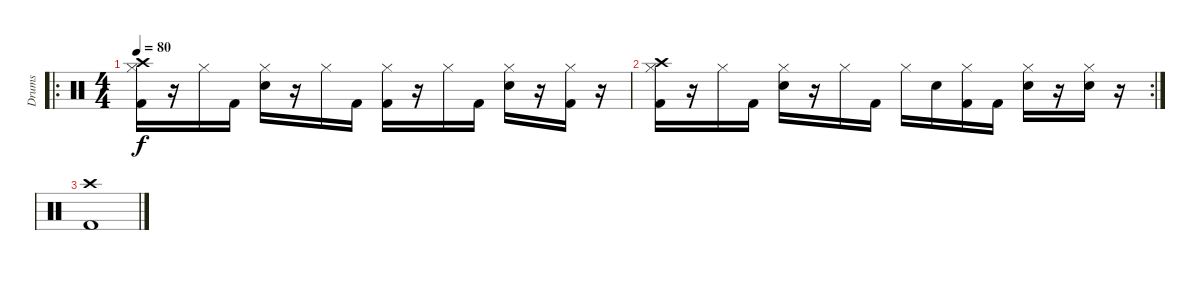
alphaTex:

\track ("Drums" "Drums") {instrument percussion}
\staff {score}
\articulation defaults
\ro
\ts (4 4)
\tempo 80
\clef neutral
\ks c
("Hi-Hat (closed)" "Crash high (hit)" "Kick (hit) 2").16{dy f} r.16 "Hi-Hat (closed)".16 "Kick (hit) 2".16 ("Hi-Hat (closed)" "Snare (hit) 2").16 r.16 "Hi-Hat (closed)".16 "Kick (hit) 2".16 ("Hi-Hat (closed)" "Kick (hit) 2").16 r.16 "Hi-Hat (closed)".16 "Kick (hit) 2".16 ("Hi-Hat (closed)" "Snare (hit) 2").16 r.16 ("Hi-Hat (closed)" "Kick (hit) 2").16 r.16 |
\rc 2
("Hi-Hat (closed)" "Crash high (hit)" "Kick (hit) 2").16 r.16 "Hi-Hat (closed)".16 "Kick (hit) 2".16 ("Hi-Hat (closed)" "Snare (hit) 2").16 r.16 "Hi-Hat (closed)".16 "Kick (hit) 2".16 "Hi-Hat (closed)".16 "Snare (hit) 2".16 ("Hi-Hat (closed)" "Kick (hit) 2").16 "Kick (hit) 2".16 ("Hi-Hat (closed)" "Snare (hit) 2").16 r.16 ("Hi-Hat (closed)" "Snare (hit) 2").16 r.16 |
("Kick (hit) 2" "Crash high (hit)").1
